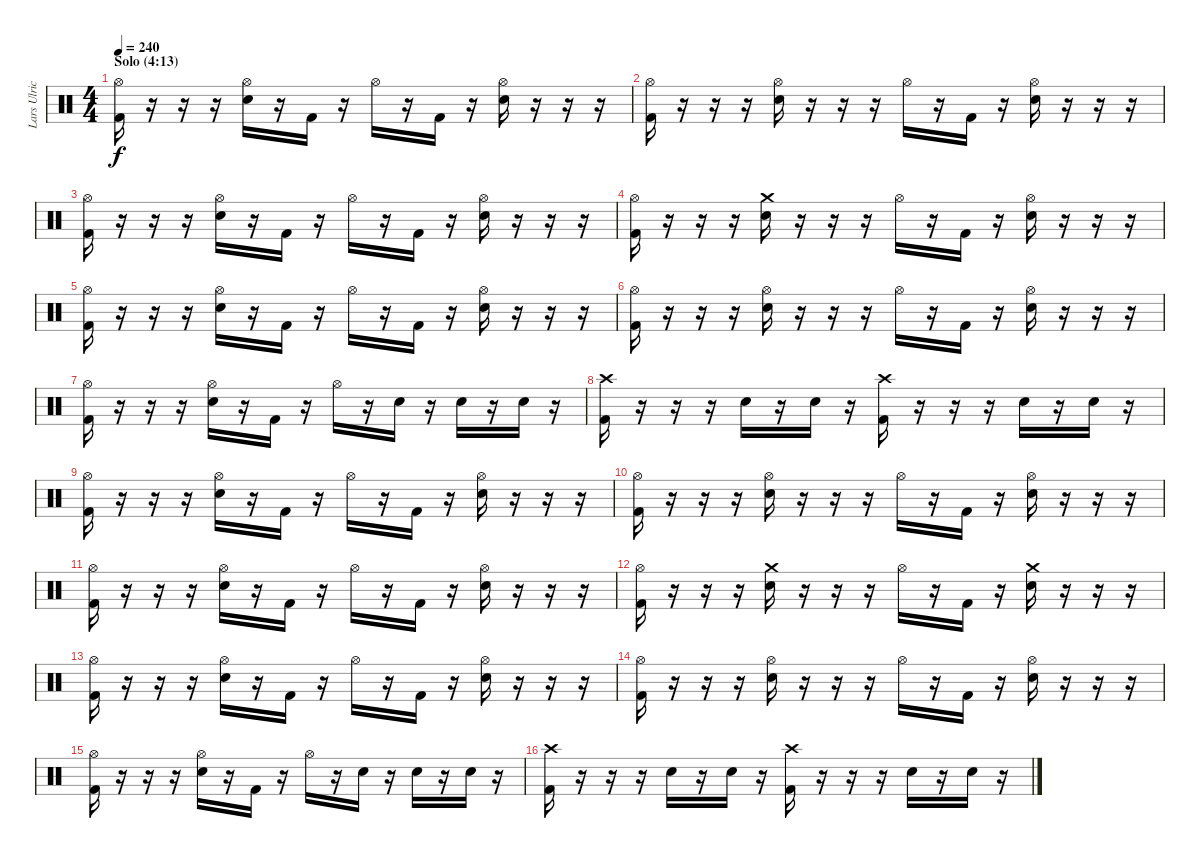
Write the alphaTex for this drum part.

\track ("Lars Ulrich" "Lars Ulric") {instrument percussion}
\staff {score}
\articulation defaults
\ts (4 4)
\section ("" "Solo (4:13)")
\tempo 240
\clef neutral
\ks c
("Hi-Hat (open)" "Kick (hit) 2").16{dy f} r.16 r.16 r.16 ("Electric Snare (hit)" "Hi-Hat (open)").16 r.16 "Kick (hit) 2".16 r.16 "Hi-Hat (open)".16 r.16 "Kick (hit) 2".16 r.16 ("Electric Snare (hit)" "Hi-Hat (open)").16 r.16 r.16 r.16 |
("Hi-Hat (open)" "Kick (hit) 2").16 r.16 r.16 r.16 ("Electric Snare (hit)" "Hi-Hat (open)").16 r.16 r.16 r.16 "Hi-Hat (open)".16 r.16 "Kick (hit) 2".16 r.16 ("Electric Snare (hit)" "Hi-Hat (open)").16 r.16 r.16 r.16 |
("Hi-Hat (open)" "Kick (hit) 2").16 r.16 r.16 r.16 ("Electric Snare (hit)" "Hi-Hat (open)").16 r.16 "Kick (hit) 2".16 r.16 "Hi-Hat (open)".16 r.16 "Kick (hit) 2".16 r.16 ("Electric Snare (hit)" "Hi-Hat (open)").16 r.16 r.16 r.16 |
("Hi-Hat (open)" "Kick (hit) 2").16 r.16 r.16 r.16 ("Electric Snare (hit)" "Crash medium (hit)").16 r.16 r.16 r.16 "Hi-Hat (open)".16 r.16 "Kick (hit) 2".16 r.16 ("Electric Snare (hit)" "Hi-Hat (open)").16 r.16 r.16 r.16 |
("Hi-Hat (open)" "Kick (hit) 2").16 r.16 r.16 r.16 ("Electric Snare (hit)" "Hi-Hat (open)").16 r.16 "Kick (hit) 2".16 r.16 "Hi-Hat (open)".16 r.16 "Kick (hit) 2".16 r.16 ("Electric Snare (hit)" "Hi-Hat (open)").16 r.16 r.16 r.16 |
("Hi-Hat (open)" "Kick (hit) 2").16 r.16 r.16 r.16 ("Electric Snare (hit)" "Hi-Hat (open)").16 r.16 r.16 r.16 "Hi-Hat (open)".16 r.16 "Kick (hit) 2".16 r.16 ("Electric Snare (hit)" "Hi-Hat (open)").16 r.16 r.16 r.16 |
("Hi-Hat (open)" "Kick (hit) 2").16 r.16 r.16 r.16 ("Electric Snare (hit)" "Hi-Hat (open)").16 r.16 "Kick (hit) 2".16 r.16 "Hi-Hat (open)".16 r.16 "Electric Snare (hit)".16 r.16 "Electric Snare (hit)".16 r.16 "Electric Snare (hit)".16 r.16 |
("Crash high (hit)" "Kick (hit) 2").16 r.16 r.16 r.16 "Electric Snare (hit)".16 r.16 "Electric Snare (hit)".16 r.16 ("Crash high (hit)" "Kick (hit) 2").16 r.16 r.16 r.16 "Electric Snare (hit)".16 r.16 "Electric Snare (hit)".16 r.16 |
("Hi-Hat (open)" "Kick (hit) 2").16 r.16 r.16 r.16 ("Electric Snare (hit)" "Hi-Hat (open)").16 r.16 "Kick (hit) 2".16 r.16 "Hi-Hat (open)".16 r.16 "Kick (hit) 2".16 r.16 ("Electric Snare (hit)" "Hi-Hat (open)").16 r.16 r.16 r.16 |
("Hi-Hat (open)" "Kick (hit) 2").16 r.16 r.16 r.16 ("Electric Snare (hit)" "Hi-Hat (open)").16 r.16 r.16 r.16 "Hi-Hat (open)".16 r.16 "Kick (hit) 2".16 r.16 ("Electric Snare (hit)" "Hi-Hat (open)").16 r.16 r.16 r.16 |
("Hi-Hat (open)" "Kick (hit) 2").16 r.16 r.16 r.16 ("Electric Snare (hit)" "Hi-Hat (open)").16 r.16 "Kick (hit) 2".16 r.16 "Hi-Hat (open)".16 r.16 "Kick (hit) 2".16 r.16 ("Electric Snare (hit)" "Hi-Hat (open)").16 r.16 r.16 r.16 |
("Hi-Hat (open)" "Kick (hit) 2").16 r.16 r.16 r.16 ("Electric Snare (hit)" "Crash medium (hit)").16 r.16 r.16 r.16 "Hi-Hat (open)".16 r.16 "Kick (hit) 2".16 r.16 ("Electric Snare (hit)" "Crash medium (hit)").16 r.16 r.16 r.16 |
("Hi-Hat (open)" "Kick (hit) 2").16 r.16 r.16 r.16 ("Electric Snare (hit)" "Hi-Hat (open)").16 r.16 "Kick (hit) 2".16 r.16 "Hi-Hat (open)".16 r.16 "Kick (hit) 2".16 r.16 ("Electric Snare (hit)" "Hi-Hat (open)").16 r.16 r.16 r.16 |
("Hi-Hat (open)" "Kick (hit) 2").16 r.16 r.16 r.16 ("Electric Snare (hit)" "Hi-Hat (open)").16 r.16 r.16 r.16 "Hi-Hat (open)".16 r.16 "Kick (hit) 2".16 r.16 ("Electric Snare (hit)" "Hi-Hat (open)").16 r.16 r.16 r.16 |
("Hi-Hat (open)" "Kick (hit) 2").16 r.16 r.16 r.16 ("Electric Snare (hit)" "Hi-Hat (open)").16 r.16 "Kick (hit) 2".16 r.16 "Hi-Hat (open)".16 r.16 "Electric Snare (hit)".16 r.16 "Electric Snare (hit)".16 r.16 "Electric Snare (hit)".16 r.16 |
("Crash high (hit)" "Kick (hit) 2").16 r.16 r.16 r.16 "Electric Snare (hit)".16 r.16 "Electric Snare (hit)".16 r.16 ("Crash high (hit)" "Kick (hit) 2").16 r.16 r.16 r.16 "Electric Snare (hit)".16 r.16 "Electric Snare (hit)".16 r.16
